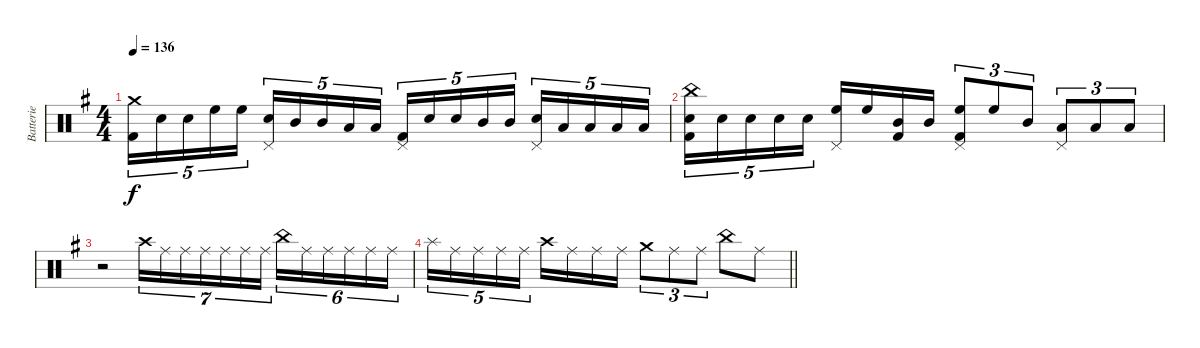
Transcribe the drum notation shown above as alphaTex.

\track ("Batterie" "Batterie") {instrument percussion}
\staff {score}
\articulation defaults
\ts (4 4)
\tempo 136
\clef neutral
\ks g
("Crash medium (hit)" "Kick (hit) 2").16{tu (5 4) dy f} "Snare (hit) 2".16{tu (5 4)} "Snare (hit) 2".16{tu (5 4)} "High Floor Tom (hit)".16{tu (5 4)} "High Floor Tom (hit)".16{tu (5 4)} ("Pedal Hi-Hat (hit)" "Snare (hit) 2").16{tu (5 4)} "Mid Tom (hit)".16{tu (5 4)} "Mid Tom (hit)".16{tu (5 4)} "Low Tom (hit)".16{tu (5 4)} "Low Tom (hit)".16{tu (5 4)} ("Pedal Hi-Hat (hit)" "Kick (hit) 2").16{tu (5 4)} "Snare (hit) 2".16{tu (5 4)} "Snare (hit) 2".16{tu (5 4)} "Mid Tom (hit)".16{tu (5 4)} "Mid Tom (hit)".16{tu (5 4)} ("Pedal Hi-Hat (hit)" "Snare (hit) 2").16{tu (5 4)} "Low Tom (hit)".16{tu (5 4)} "Low Tom (hit)".16{tu (5 4)} "Low Floor Tom (hit)".16{tu (5 4)} "Low Floor Tom (hit)".16{tu (5 4)} |
("China (hit)" "Snare (hit) 2" "Kick (hit) 2").16{tu (5 4)} "Snare (hit) 2".16{tu (5 4)} "Snare (hit) 2".16{tu (5 4)} "Snare (hit) 2".16{tu (5 4)} "Snare (hit) 2".16{tu (5 4)} ("Pedal Hi-Hat (hit)" "High Floor Tom (hit)").16 "High Floor Tom (hit)".16 ("Mid Tom (hit)" "Kick (hit) 2").16 "Mid Tom (hit)".16 ("Pedal Hi-Hat (hit)" "High Floor Tom (hit)" "Kick (hit) 2").8{tu (3 2)} "High Floor Tom (hit)".8{tu (3 2)} "Mid Tom (hit)".8{tu (3 2)} ("Pedal Hi-Hat (hit)" "Low Tom (hit)").8{tu (3 2)} "Low Tom (hit)".8{tu (3 2)} "Low Floor Tom (hit)".8{tu (3 2)} |
r.2 "Crash high (hit)".16{tu (7 4)} "Ride (middle)".16{tu (7 4)} "Ride (middle)".16{tu (7 4)} "Ride (middle)".16{tu (7 4)} "Ride (middle)".16{tu (7 4)} "Ride (middle)".16{tu (7 4)} "Ride (middle)".16{tu (7 4)} "China (hit)".16{tu (6 4)} "Ride (middle)".16{tu (6 4)} "Ride (middle)".16{tu (6 4)} "Ride (middle)".16{tu (6 4)} "Ride (middle)".16{tu (6 4)} "Ride (middle)".16{tu (6 4)} |
\barLineRight lightlight "Splash (hit)".16{tu (5 4)} "Ride (middle)".16{tu (5 4)} "Ride (middle)".16{tu (5 4)} "Ride (middle)".16{tu (5 4)} "Ride (middle)".16{tu (5 4)} "Crash high (hit)".16 "Ride (middle)".16 "Ride (middle)".16 "Ride (middle)".16 "Crash medium (hit)".8{tu (3 2)} "Ride (middle)".8{tu (3 2)} "Ride (middle)".8{tu (3 2)} "China (hit)".8 "Ride (middle)".8
